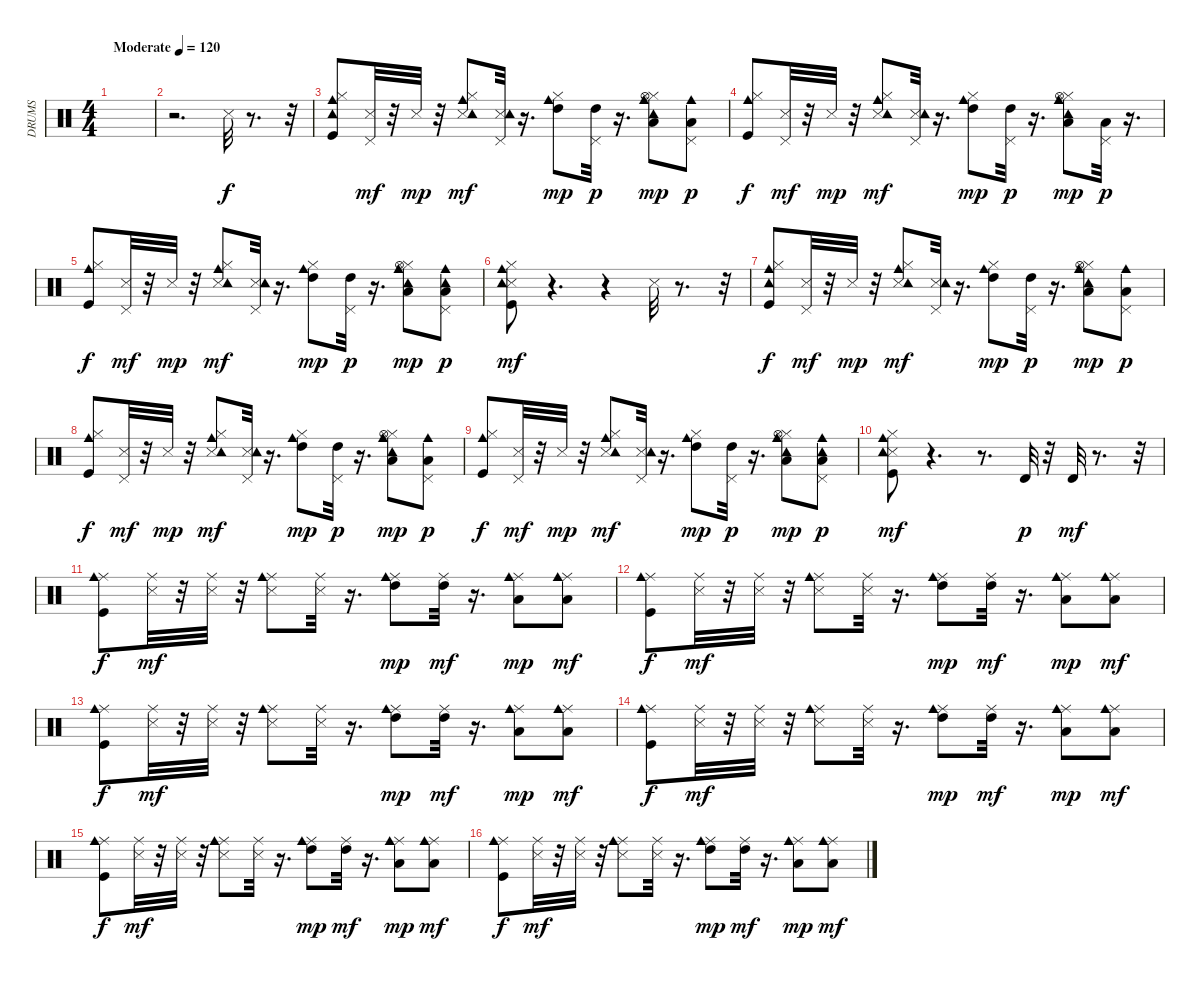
\track ("DRUMS               " "DRUMS     ") {instrument percussion}
\staff {score}
\articulation defaults
\ts (4 4)
\tempo (120 "Moderate")
\clef neutral
\ks c
|
r.2{d} "Snare (side stick) 3".32 r.8{d} r.32 |
("Kick (hit)" "Hi-Hat (closed)" "Tambourine (hit)" "Cowbell medium (hit)").8{dy f} ("Snare (side stick) 3" "Pedal Hi-Hat (hit)").32{dy mf} r.32 "Snare (side stick) 3".32{dy mp} r.32 ("Snare (side stick) 3" "Hi-Hat (closed)" "Tambourine (hit)" "Cowbell medium (hit)").8{dy mf} ("Snare (side stick) 3" "Pedal Hi-Hat (hit)" "Tambourine (hit)").32 r.16{d} ("High Tom (hit)" "Hi-Hat (closed)" "Cowbell medium (hit)").8{dy mp} ("High Tom (hit)" "Pedal Hi-Hat (hit)").32{dy p} r.16{d} ("Low Floor Tom (hit)" "Hi-Hat (closed)" "Tambourine (hit)" "Hi-Hat (open)" "Cowbell medium (hit)").8{dy mp} ("Low Floor Tom (hit)" "Pedal Hi-Hat (hit)" "Cowbell medium (hit)").8{dy p} |
("Kick (hit)" "Hi-Hat (closed)" "Cowbell medium (hit)").8{dy f} ("Snare (side stick) 3" "Pedal Hi-Hat (hit)").32{dy mf} r.32 "Snare (side stick) 3".32{dy mp} r.32 ("Snare (side stick) 3" "Hi-Hat (closed)" "Tambourine (hit)" "Cowbell medium (hit)").8{dy mf} ("Snare (side stick) 3" "Pedal Hi-Hat (hit)" "Tambourine (hit)").32 r.16{d} ("High Tom (hit)" "Hi-Hat (closed)" "Cowbell medium (hit)").8{dy mp} ("High Tom (hit)" "Pedal Hi-Hat (hit)").32{dy p} r.16{d} ("Low Floor Tom (hit)" "Hi-Hat (closed)" "Tambourine (hit)" "Hi-Hat (open)" "Cowbell medium (hit)").8{dy mp} ("Low Floor Tom (hit)" "Pedal Hi-Hat (hit)").32{dy p} r.16{d} |
("Kick (hit)" "Hi-Hat (closed)" "Cowbell medium (hit)").8{dy f} ("Snare (side stick) 3" "Pedal Hi-Hat (hit)").32{dy mf} r.32 "Snare (side stick) 3".32{dy mp} r.32 ("Snare (side stick) 3" "Hi-Hat (closed)" "Tambourine (hit)" "Cowbell medium (hit)").8{dy mf} ("Snare (side stick) 3" "Pedal Hi-Hat (hit)" "Tambourine (hit)").32 r.16{d} ("High Tom (hit)" "Hi-Hat (closed)" "Cowbell medium (hit)").8{dy mp} ("High Tom (hit)" "Pedal Hi-Hat (hit)").32{dy p} r.16{d} ("Low Floor Tom (hit)" "Hi-Hat (closed)" "Tambourine (hit)" "Hi-Hat (open)" "Cowbell medium (hit)").8{dy mp} ("Low Floor Tom (hit)" "Pedal Hi-Hat (hit)" "Tambourine (hit)" "Cowbell medium (hit)").8{dy p} |
("Kick (hit)" "Snare (side stick) 3" "Hi-Hat (closed)" "Tambourine (hit)" "Cowbell medium (hit)").8{dy mf} r.4{d} r.4 "Snare (side stick) 3".32 r.8{d} r.32 |
("Kick (hit)" "Hi-Hat (closed)" "Tambourine (hit)" "Cowbell medium (hit)").8{dy f} ("Snare (side stick) 3" "Pedal Hi-Hat (hit)").32{dy mf} r.32 "Snare (side stick) 3".32{dy mp} r.32 ("Snare (side stick) 3" "Hi-Hat (closed)" "Tambourine (hit)" "Cowbell medium (hit)").8{dy mf} ("Snare (side stick) 3" "Pedal Hi-Hat (hit)" "Tambourine (hit)").32 r.16{d} ("High Tom (hit)" "Hi-Hat (closed)" "Cowbell medium (hit)").8{dy mp} ("High Tom (hit)" "Pedal Hi-Hat (hit)").32{dy p} r.16{d} ("Low Floor Tom (hit)" "Hi-Hat (closed)" "Tambourine (hit)" "Hi-Hat (open)" "Cowbell medium (hit)").8{dy mp} ("Low Floor Tom (hit)" "Pedal Hi-Hat (hit)" "Cowbell medium (hit)").8{dy p} |
("Kick (hit)" "Hi-Hat (closed)" "Cowbell medium (hit)").8{dy f} ("Snare (side stick) 3" "Pedal Hi-Hat (hit)").32{dy mf} r.32 "Snare (side stick) 3".32{dy mp} r.32 ("Snare (side stick) 3" "Hi-Hat (closed)" "Tambourine (hit)" "Cowbell medium (hit)").8{dy mf} ("Snare (side stick) 3" "Pedal Hi-Hat (hit)" "Tambourine (hit)").32 r.16{d} ("High Tom (hit)" "Hi-Hat (closed)" "Cowbell medium (hit)").8{dy mp} ("High Tom (hit)" "Pedal Hi-Hat (hit)").32{dy p} r.16{d} ("Low Floor Tom (hit)" "Hi-Hat (closed)" "Tambourine (hit)" "Hi-Hat (open)" "Cowbell medium (hit)").8{dy mp} ("Low Floor Tom (hit)" "Pedal Hi-Hat (hit)" "Cowbell medium (hit)").8{dy p} |
("Kick (hit)" "Hi-Hat (closed)" "Cowbell medium (hit)").8{dy f} ("Snare (side stick) 3" "Pedal Hi-Hat (hit)").32{dy mf} r.32 "Snare (side stick) 3".32{dy mp} r.32 ("Snare (side stick) 3" "Hi-Hat (closed)" "Tambourine (hit)" "Cowbell medium (hit)").8{dy mf} ("Snare (side stick) 3" "Pedal Hi-Hat (hit)" "Tambourine (hit)").32 r.16{d} ("High Tom (hit)" "Hi-Hat (closed)" "Cowbell medium (hit)").8{dy mp} ("High Tom (hit)" "Pedal Hi-Hat (hit)").32{dy p} r.16{d} ("Low Floor Tom (hit)" "Hi-Hat (closed)" "Hi-Hat (open)" "Cowbell medium (hit)" "Tambourine (hit)").8{dy mp} ("Low Floor Tom (hit)" "Pedal Hi-Hat (hit)" "Tambourine (hit)" "Cowbell medium (hit)").8{dy p} |
("Kick (hit)" "Snare (side stick) 3" "Hi-Hat (closed)" "Cowbell medium (hit)" "Tambourine (hit)").8{dy mf} r.4{d} r.8{d} "Timbale high (hit)".32{dy p} r.32 "Timbale high (hit)".32{dy mf} r.8{d} r.32 |
("Kick (hit)" "Ride (middle)" "Cowbell medium (hit)").8{dy f} ("Snare (side stick) 3" "Ride (middle)").32{dy mf} r.32 ("Snare (side stick) 3" "Ride (middle)").32 r.32 ("Snare (side stick) 3" "Ride (middle)" "Cowbell medium (hit)").8 ("Snare (side stick) 3" "Ride (middle)").32 r.16{d} ("High Tom (hit)" "Ride (middle)" "Cowbell medium (hit)").8{dy mp} ("High Tom (hit)" "Ride (middle)").32{dy mf} r.16{d} ("Low Floor Tom (hit)" "Ride (middle)" "Cowbell medium (hit)").8{dy mp} ("Low Floor Tom (hit)" "Ride (middle)" "Cowbell medium (hit)").8{dy mf} |
("Kick (hit)" "Ride (middle)" "Cowbell medium (hit)").8{dy f} ("Snare (side stick) 3" "Ride (middle)").32{dy mf} r.32 ("Snare (side stick) 3" "Ride (middle)").32 r.32 ("Snare (side stick) 3" "Ride (middle)" "Cowbell medium (hit)").8 ("Snare (side stick) 3" "Ride (middle)").32 r.16{d} ("High Tom (hit)" "Ride (middle)" "Cowbell medium (hit)").8{dy mp} ("High Tom (hit)" "Ride (middle)").32{dy mf} r.16{d} ("Low Floor Tom (hit)" "Ride (middle)" "Cowbell medium (hit)").8{dy mp} ("Low Floor Tom (hit)" "Ride (middle)" "Cowbell medium (hit)").8{dy mf} |
("Kick (hit)" "Ride (middle)" "Cowbell medium (hit)").8{dy f} ("Snare (side stick) 3" "Ride (middle)").32{dy mf} r.32 ("Snare (side stick) 3" "Ride (middle)").32 r.32 ("Snare (side stick) 3" "Ride (middle)" "Cowbell medium (hit)").8 ("Snare (side stick) 3" "Ride (middle)").32 r.16{d} ("High Tom (hit)" "Ride (middle)" "Cowbell medium (hit)").8{dy mp} ("High Tom (hit)" "Ride (middle)").32{dy mf} r.16{d} ("Low Floor Tom (hit)" "Ride (middle)" "Cowbell medium (hit)").8{dy mp} ("Low Floor Tom (hit)" "Ride (middle)" "Cowbell medium (hit)").8{dy mf} |
("Kick (hit)" "Ride (middle)" "Cowbell medium (hit)").8{dy f} ("Snare (side stick) 3" "Ride (middle)").32{dy mf} r.32 ("Snare (side stick) 3" "Ride (middle)").32 r.32 ("Snare (side stick) 3" "Ride (middle)" "Cowbell medium (hit)").8 ("Snare (side stick) 3" "Ride (middle)").32 r.16{d} ("High Tom (hit)" "Ride (middle)" "Cowbell medium (hit)").8{dy mp} ("High Tom (hit)" "Ride (middle)").32{dy mf} r.16{d} ("Low Floor Tom (hit)" "Ride (middle)" "Cowbell medium (hit)").8{dy mp} ("Low Floor Tom (hit)" "Ride (middle)" "Cowbell medium (hit)").8{dy mf} |
("Kick (hit)" "Ride (middle)" "Cowbell medium (hit)").8{dy f} ("Snare (side stick) 3" "Ride (middle)").32{dy mf} r.32 ("Snare (side stick) 3" "Ride (middle)").32 r.32 ("Snare (side stick) 3" "Ride (middle)" "Cowbell medium (hit)").8 ("Snare (side stick) 3" "Ride (middle)").32 r.16{d} ("High Tom (hit)" "Ride (middle)" "Cowbell medium (hit)").8{dy mp} ("High Tom (hit)" "Ride (middle)").32{dy mf} r.16{d} ("Low Floor Tom (hit)" "Ride (middle)" "Cowbell medium (hit)").8{dy mp} ("Low Floor Tom (hit)" "Ride (middle)" "Cowbell medium (hit)").8{dy mf} |
("Kick (hit)" "Ride (middle)" "Cowbell medium (hit)").8{dy f} ("Snare (side stick) 3" "Ride (middle)").32{dy mf} r.32 ("Snare (side stick) 3" "Ride (middle)").32 r.32 ("Snare (side stick) 3" "Ride (middle)" "Cowbell medium (hit)").8 ("Snare (side stick) 3" "Ride (middle)").32 r.16{d} ("High Tom (hit)" "Ride (middle)" "Cowbell medium (hit)").8{dy mp} ("High Tom (hit)" "Ride (middle)").32{dy mf} r.16{d} ("Low Floor Tom (hit)" "Ride (middle)" "Cowbell medium (hit)").8{dy mp} ("Low Floor Tom (hit)" "Ride (middle)" "Cowbell medium (hit)").8{dy mf}
